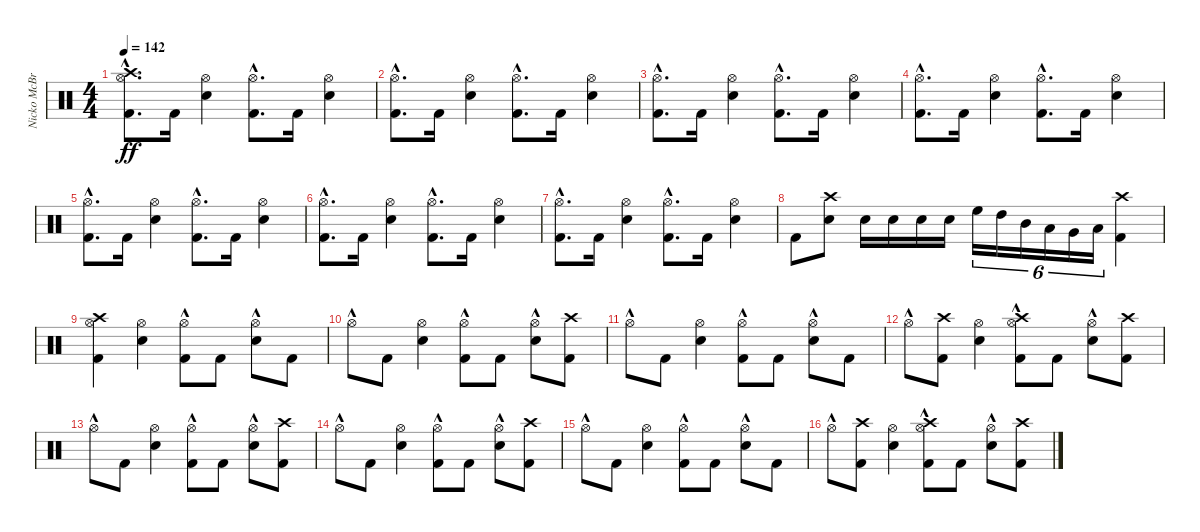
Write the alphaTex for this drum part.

\track ("Nicko McBrain" "Nicko McBr") {instrument percussion}
\staff {score}
\articulation defaults
\ts (4 4)
\tempo 142
\clef neutral
\ks c
("Kick (hit) 2"{hac} "Hi-Hat (open)"{hac} "Crash high (hit)"{hac}).8{d dy ff} "Kick (hit) 2".16 ("Snare (hit) 2" "Hi-Hat (open)").4 ("Kick (hit) 2"{hac} "Hi-Hat (open)"{hac}).8{d} "Kick (hit) 2".16 ("Snare (hit) 2" "Hi-Hat (open)").4 |
("Kick (hit) 2"{hac} "Hi-Hat (open)"{hac}).8{d} "Kick (hit) 2".16 ("Snare (hit) 2" "Hi-Hat (open)").4 ("Kick (hit) 2"{hac} "Hi-Hat (open)"{hac}).8{d} "Kick (hit) 2".16 ("Snare (hit) 2" "Hi-Hat (open)").4 |
("Kick (hit) 2"{hac} "Hi-Hat (open)"{hac}).8{d} "Kick (hit) 2".16 ("Snare (hit) 2" "Hi-Hat (open)").4 ("Kick (hit) 2"{hac} "Hi-Hat (open)"{hac}).8{d} "Kick (hit) 2".16 ("Snare (hit) 2" "Hi-Hat (open)").4 |
("Kick (hit) 2"{hac} "Hi-Hat (open)"{hac}).8{d} "Kick (hit) 2".16 ("Snare (hit) 2" "Hi-Hat (open)").4 ("Kick (hit) 2"{hac} "Hi-Hat (open)"{hac}).8{d} "Kick (hit) 2".16 ("Snare (hit) 2" "Hi-Hat (open)").4 |
("Kick (hit) 2"{hac} "Hi-Hat (open)"{hac}).8{d} "Kick (hit) 2".16 ("Snare (hit) 2" "Hi-Hat (open)").4 ("Kick (hit) 2"{hac} "Hi-Hat (open)"{hac}).8{d} "Kick (hit) 2".16 ("Snare (hit) 2" "Hi-Hat (open)").4 |
("Kick (hit) 2"{hac} "Hi-Hat (open)"{hac}).8{d} "Kick (hit) 2".16 ("Snare (hit) 2" "Hi-Hat (open)").4 ("Kick (hit) 2"{hac} "Hi-Hat (open)"{hac}).8{d} "Kick (hit) 2".16 ("Snare (hit) 2" "Hi-Hat (open)").4 |
("Kick (hit) 2"{hac} "Hi-Hat (open)"{hac}).8{d} "Kick (hit) 2".16 ("Snare (hit) 2" "Hi-Hat (open)").4 ("Kick (hit) 2"{hac} "Hi-Hat (open)"{hac}).8{d} "Kick (hit) 2".16 ("Snare (hit) 2" "Hi-Hat (open)").4 |
"Kick (hit) 2".8 ("Snare (hit) 2" "Crash high (hit)").8 "Snare (hit) 2".16 "Snare (hit) 2".16 "Snare (hit) 2".16 "Snare (hit) 2".16 "High Floor Tom (hit)".16{tu (6 4)} "High Tom (hit)".16{tu (6 4)} "Mid Tom (hit)".16{tu (6 4)} "Low Tom (hit)".16{tu (6 4)} "Very Low Tom (hit)".16{tu (6 4)} "Low Floor Tom (hit)".16{tu (6 4)} ("Kick (hit) 2" "Crash high (hit)").4 |
("Kick (hit) 2" "Hi-Hat (open)" "Crash high (hit)").4 ("Snare (hit) 2" "Hi-Hat (open)").4 ("Kick (hit) 2" "Hi-Hat (open)"{hac}).8 "Kick (hit) 2".8 ("Snare (hit) 2" "Hi-Hat (open)"{hac}).8 "Kick (hit) 2".8 |
"Hi-Hat (open)"{hac}.8 "Kick (hit) 2".8 ("Snare (hit) 2" "Hi-Hat (open)").4 ("Kick (hit) 2" "Hi-Hat (open)"{hac}).8 "Kick (hit) 2".8 ("Snare (hit) 2" "Hi-Hat (open)"{hac}).8 ("Kick (hit) 2" "Crash high (hit)").8 |
"Hi-Hat (open)"{hac}.8 "Kick (hit) 2".8 ("Snare (hit) 2" "Hi-Hat (open)").4 ("Kick (hit) 2" "Hi-Hat (open)"{hac}).8 "Kick (hit) 2".8 ("Snare (hit) 2" "Hi-Hat (open)"{hac}).8 "Kick (hit) 2".8 |
"Hi-Hat (open)"{hac}.8 ("Kick (hit) 2" "Crash high (hit)").8 ("Snare (hit) 2" "Hi-Hat (open)").4 ("Kick (hit) 2" "Hi-Hat (open)"{hac} "Crash high (hit)"{hac}).8 "Kick (hit) 2".8 ("Snare (hit) 2" "Hi-Hat (open)"{hac}).8 ("Kick (hit) 2" "Crash high (hit)").8 |
"Hi-Hat (open)"{hac}.8 "Kick (hit) 2".8 ("Snare (hit) 2" "Hi-Hat (open)").4 ("Kick (hit) 2" "Hi-Hat (open)"{hac}).8 "Kick (hit) 2".8 ("Snare (hit) 2" "Hi-Hat (open)"{hac}).8 ("Kick (hit) 2" "Crash high (hit)").8 |
"Hi-Hat (open)"{hac}.8 "Kick (hit) 2".8 ("Snare (hit) 2" "Hi-Hat (open)").4 ("Kick (hit) 2" "Hi-Hat (open)"{hac}).8 "Kick (hit) 2".8 ("Snare (hit) 2" "Hi-Hat (open)"{hac}).8 ("Kick (hit) 2" "Crash high (hit)").8 |
"Hi-Hat (open)"{hac}.8 "Kick (hit) 2".8 ("Snare (hit) 2" "Hi-Hat (open)").4 ("Kick (hit) 2" "Hi-Hat (open)"{hac}).8 "Kick (hit) 2".8 ("Snare (hit) 2" "Hi-Hat (open)"{hac}).8 "Kick (hit) 2".8 |
"Hi-Hat (open)"{hac}.8 ("Kick (hit) 2" "Crash high (hit)").8 ("Snare (hit) 2" "Hi-Hat (open)").4 ("Kick (hit) 2" "Hi-Hat (open)"{hac} "Crash high (hit)"{hac}).8 "Kick (hit) 2".8 ("Snare (hit) 2" "Hi-Hat (open)"{hac}).8 ("Kick (hit) 2" "Crash high (hit)").8
